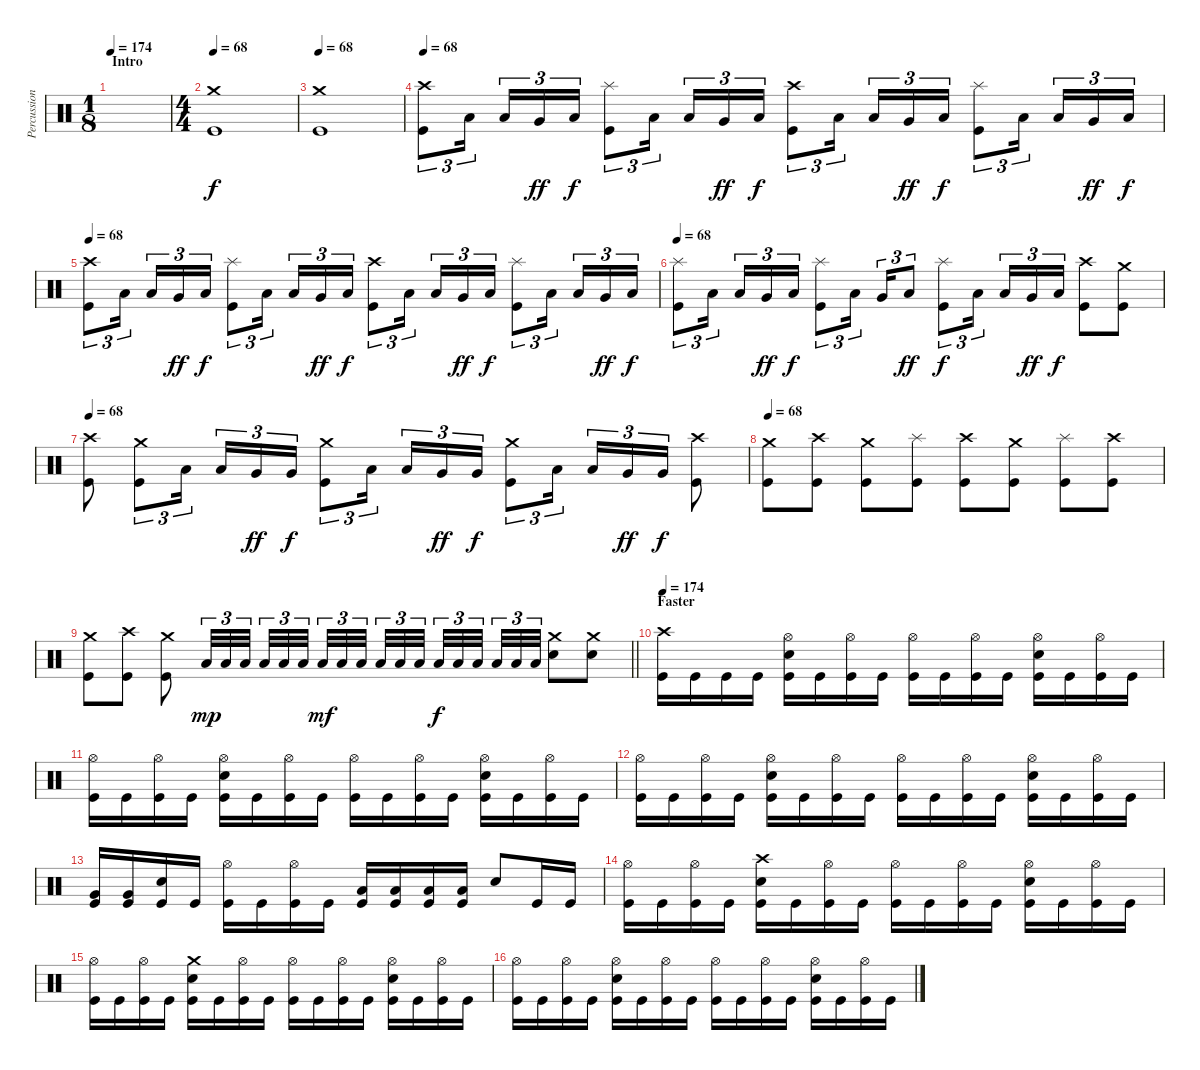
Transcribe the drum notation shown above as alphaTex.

\track ("Percussion" "Percussion") {instrument percussion}
\staff {score}
\articulation defaults
\ts (1 8)
\section ("" "Intro")
\tempo 174
\tempo 68
\tempo 174
\clef neutral
\ks c
|
\ts (4 4)
\tempo 68
("Crash medium (hit)" "Kick (hit)").1 |
\tempo 68
("Crash medium (hit)" "Kick (hit)").1 |
\tempo 68
("Crash high (hit)" "Kick (hit)").8{tu (3 2)} "Low Tom (hit)".16{tu (3 2)} "Low Tom (hit)".16{tu (3 2)} "Very Low Tom (hit)".16{tu (3 2) dy ff} "Low Floor Tom (hit)".16{tu (3 2) dy f} ("Splash (hit)" "Kick (hit)").8{tu (3 2)} "Low Tom (hit)".16{tu (3 2)} "Low Tom (hit)".16{tu (3 2)} "Very Low Tom (hit)".16{tu (3 2) dy ff} "Low Floor Tom (hit)".16{tu (3 2) dy f} ("Crash high (hit)" "Kick (hit)").8{tu (3 2)} "Low Tom (hit)".16{tu (3 2)} "Low Tom (hit)".16{tu (3 2)} "Very Low Tom (hit)".16{tu (3 2) dy ff} "Low Floor Tom (hit)".16{tu (3 2) dy f} ("Splash (hit)" "Kick (hit)").8{tu (3 2)} "Low Tom (hit)".16{tu (3 2)} "Low Tom (hit)".16{tu (3 2)} "Very Low Tom (hit)".16{tu (3 2) dy ff} "Low Floor Tom (hit)".16{tu (3 2) dy f} |
\tempo 68
("Crash high (hit)" "Kick (hit)").8{tu (3 2)} "Low Tom (hit)".16{tu (3 2)} "Low Tom (hit)".16{tu (3 2)} "Very Low Tom (hit)".16{tu (3 2) dy ff} "Low Floor Tom (hit)".16{tu (3 2) dy f} ("Splash (hit)" "Kick (hit)").8{tu (3 2)} "Low Tom (hit)".16{tu (3 2)} "Low Tom (hit)".16{tu (3 2)} "Very Low Tom (hit)".16{tu (3 2) dy ff} "Low Floor Tom (hit)".16{tu (3 2) dy f} ("Crash high (hit)" "Kick (hit)").8{tu (3 2)} "Low Tom (hit)".16{tu (3 2)} "Low Tom (hit)".16{tu (3 2)} "Very Low Tom (hit)".16{tu (3 2) dy ff} "Low Floor Tom (hit)".16{tu (3 2) dy f} ("Splash (hit)" "Kick (hit)").8{tu (3 2)} "Low Tom (hit)".16{tu (3 2)} "Low Tom (hit)".16{tu (3 2)} "Very Low Tom (hit)".16{tu (3 2) dy ff} "Low Floor Tom (hit)".16{tu (3 2) dy f} |
\tempo 68
("Splash (hit)" "Kick (hit)").8{tu (3 2)} "Low Tom (hit)".16{tu (3 2)} "Low Tom (hit)".16{tu (3 2)} "Very Low Tom (hit)".16{tu (3 2) dy ff} "Low Floor Tom (hit)".16{tu (3 2) dy f} ("Splash (hit)" "Kick (hit)").8{tu (3 2)} "Low Tom (hit)".16{tu (3 2)} "Very Low Tom (hit)".16{tu (3 2)} "Low Tom (hit)".8{tu (3 2) dy ff} ("Splash (hit)" "Kick (hit)").8{tu (3 2) dy f} "Low Tom (hit)".16{tu (3 2)} "Low Tom (hit)".16{tu (3 2)} "Very Low Tom (hit)".16{tu (3 2) dy ff} "Low Floor Tom (hit)".16{tu (3 2) dy f} ("Crash high (hit)" "Kick (hit)").8 ("Crash medium (hit)" "Kick (hit)").8 |
\tempo 68
("Crash high (hit)" "Kick (hit)").8 ("Crash medium (hit)" "Kick (hit)").8{tu (3 2)} "Low Tom (hit)".16{tu (3 2)} "Low Tom (hit)".16{tu (3 2)} "Very Low Tom (hit)".16{tu (3 2) dy ff} "Very Low Tom (hit)".16{tu (3 2) dy f} ("Crash medium (hit)" "Kick (hit)").8{tu (3 2)} "Low Tom (hit)".16{tu (3 2)} "Low Tom (hit)".16{tu (3 2)} "Very Low Tom (hit)".16{tu (3 2) dy ff} "Very Low Tom (hit)".16{tu (3 2) dy f} ("Crash medium (hit)" "Kick (hit)").8{tu (3 2)} "Low Tom (hit)".16{tu (3 2)} "Low Tom (hit)".16{tu (3 2)} "Very Low Tom (hit)".16{tu (3 2) dy ff} "Very Low Tom (hit)".16{tu (3 2) dy f} ("Crash high (hit)" "Kick (hit)").8 |
\tempo 68
("Crash medium (hit)" "Kick (hit)").8 ("Crash high (hit)" "Kick (hit)").8 ("Crash medium (hit)" "Kick (hit)").8 ("Splash (hit)" "Kick (hit)").8 ("Crash high (hit)" "Kick (hit)").8 ("Crash medium (hit)" "Kick (hit)").8 ("Splash (hit)" "Kick (hit)").8 ("Crash high (hit)" "Kick (hit)").8 |
\barLineRight lightlight
("Crash medium (hit)" "Kick (hit)").8 ("Crash high (hit)" "Kick (hit)").8 ("Crash medium (hit)" "Kick (hit)").8 "Low Floor Tom (hit)".32{tu (3 2) dy mp} "Low Floor Tom (hit)".32{tu (3 2)} "Low Floor Tom (hit)".32{tu (3 2)} "Low Floor Tom (hit)".32{tu (3 2)} "Low Floor Tom (hit)".32{tu (3 2)} "Low Floor Tom (hit)".32{tu (3 2)} "Low Floor Tom (hit)".32{tu (3 2) dy mf} "Low Floor Tom (hit)".32{tu (3 2)} "Low Floor Tom (hit)".32{tu (3 2)} "Low Floor Tom (hit)".32{tu (3 2)} "Low Floor Tom (hit)".32{tu (3 2)} "Low Floor Tom (hit)".32{tu (3 2)} "Low Floor Tom (hit)".32{tu (3 2) dy f} "Low Floor Tom (hit)".32{tu (3 2)} "Low Floor Tom (hit)".32{tu (3 2)} "Low Floor Tom (hit)".32{tu (3 2)} "Low Floor Tom (hit)".32{tu (3 2)} "Low Floor Tom (hit)".32{tu (3 2)} ("Crash medium (hit)" "Electric Snare (hit)").8 ("Crash medium (hit)" "Electric Snare (hit)").8 |
\section ("" "Faster")
\tempo 174
("Crash high (hit)" "Kick (hit)").16 "Kick (hit)".16 "Kick (hit)".16 "Kick (hit)".16 ("Hi-Hat (open)" "Electric Snare (hit)" "Kick (hit)").16 "Kick (hit)".16 ("Hi-Hat (open)" "Kick (hit)").16 "Kick (hit)".16 ("Hi-Hat (open)" "Kick (hit)").16 "Kick (hit)".16 ("Hi-Hat (open)" "Kick (hit)").16 "Kick (hit)".16 ("Hi-Hat (open)" "Electric Snare (hit)" "Kick (hit)").16 "Kick (hit)".16 ("Hi-Hat (open)" "Kick (hit)").16 "Kick (hit)".16 |
("Hi-Hat (open)" "Kick (hit)").16 "Kick (hit)".16 ("Hi-Hat (open)" "Kick (hit)").16 "Kick (hit)".16 ("Hi-Hat (open)" "Electric Snare (hit)" "Kick (hit)").16 "Kick (hit)".16 ("Hi-Hat (open)" "Kick (hit)").16 "Kick (hit)".16 ("Hi-Hat (open)" "Kick (hit)").16 "Kick (hit)".16 ("Hi-Hat (open)" "Kick (hit)").16 "Kick (hit)".16 ("Hi-Hat (open)" "Electric Snare (hit)" "Kick (hit)").16 "Kick (hit)".16 ("Hi-Hat (open)" "Kick (hit)").16 "Kick (hit)".16 |
("Hi-Hat (open)" "Kick (hit)").16 "Kick (hit)".16 ("Hi-Hat (open)" "Kick (hit)").16 "Kick (hit)".16 ("Hi-Hat (open)" "Electric Snare (hit)" "Kick (hit)").16 "Kick (hit)".16 ("Hi-Hat (open)" "Kick (hit)").16 "Kick (hit)".16 ("Hi-Hat (open)" "Kick (hit)").16 "Kick (hit)".16 ("Hi-Hat (open)" "Kick (hit)").16 "Kick (hit)".16 ("Hi-Hat (open)" "Electric Snare (hit)" "Kick (hit)").16 "Kick (hit)".16 ("Hi-Hat (open)" "Kick (hit)").16 "Kick (hit)".16 |
("Very Low Tom (hit)" "Kick (hit)").16 ("Very Low Tom (hit)" "Kick (hit)").16 ("Electric Snare (hit)" "Kick (hit)").16 "Kick (hit)".16 ("Hi-Hat (open)" "Kick (hit)").16 "Kick (hit)".16 ("Hi-Hat (open)" "Kick (hit)").16 "Kick (hit)".16 ("Low Floor Tom (hit)" "Kick (hit)").16 ("Low Floor Tom (hit)" "Kick (hit)").16 ("Low Floor Tom (hit)" "Kick (hit)").16 ("Low Floor Tom (hit)" "Kick (hit)").16 "Electric Snare (hit)".8 "Kick (hit)".16 "Kick (hit)".16 |
("Hi-Hat (open)" "Kick (hit)").16 "Kick (hit)".16 ("Hi-Hat (open)" "Kick (hit)").16 "Kick (hit)".16 ("Crash high (hit)" "Electric Snare (hit)" "Kick (hit)").16 "Kick (hit)".16 ("Hi-Hat (open)" "Kick (hit)").16 "Kick (hit)".16 ("Hi-Hat (open)" "Kick (hit)").16 "Kick (hit)".16 ("Hi-Hat (open)" "Kick (hit)").16 "Kick (hit)".16 ("Hi-Hat (open)" "Electric Snare (hit)" "Kick (hit)").16 "Kick (hit)".16 ("Hi-Hat (open)" "Kick (hit)").16 "Kick (hit)".16 |
("Hi-Hat (open)" "Kick (hit)").16 "Kick (hit)".16 ("Hi-Hat (open)" "Kick (hit)").16 "Kick (hit)".16 ("Crash medium (hit)" "Electric Snare (hit)" "Kick (hit)").16 "Kick (hit)".16 ("Hi-Hat (open)" "Kick (hit)").16 "Kick (hit)".16 ("Hi-Hat (open)" "Kick (hit)").16 "Kick (hit)".16 ("Hi-Hat (open)" "Kick (hit)").16 "Kick (hit)".16 ("Hi-Hat (open)" "Electric Snare (hit)" "Kick (hit)").16 "Kick (hit)".16 ("Hi-Hat (open)" "Kick (hit)").16 "Kick (hit)".16 |
("Hi-Hat (open)" "Kick (hit)").16 "Kick (hit)".16 ("Hi-Hat (open)" "Kick (hit)").16 "Kick (hit)".16 ("Hi-Hat (open)" "Electric Snare (hit)" "Kick (hit)").16 "Kick (hit)".16 ("Hi-Hat (open)" "Kick (hit)").16 "Kick (hit)".16 ("Hi-Hat (open)" "Kick (hit)").16 "Kick (hit)".16 ("Hi-Hat (open)" "Kick (hit)").16 "Kick (hit)".16 ("Hi-Hat (open)" "Electric Snare (hit)" "Kick (hit)").16 "Kick (hit)".16 ("Hi-Hat (open)" "Kick (hit)").16 "Kick (hit)".16
